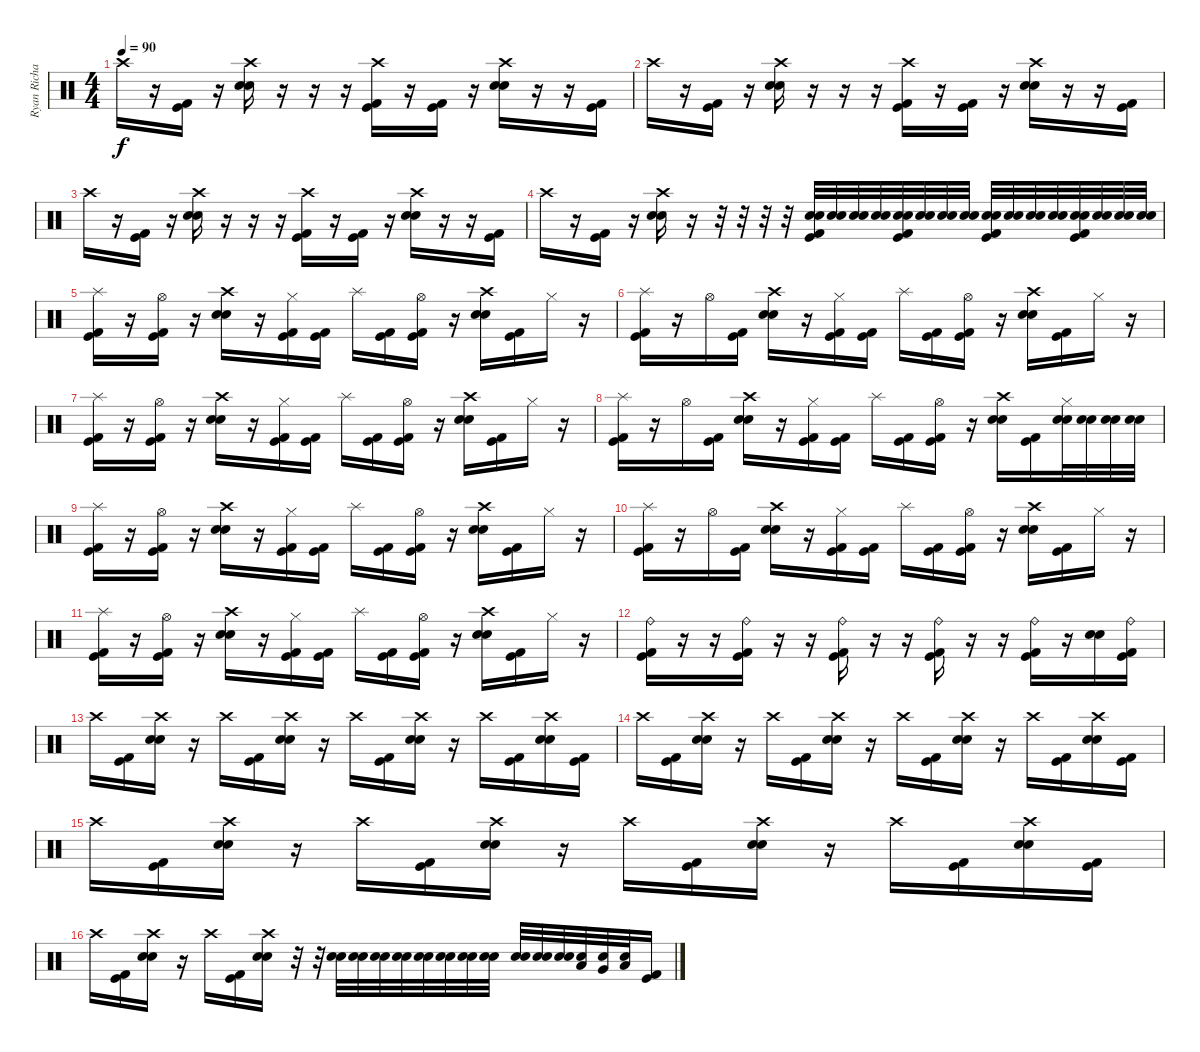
\track ("Ryan Richards" "Ryan Richa") {instrument percussion}
\staff {score}
\articulation defaults
\ts (4 4)
\tempo 90
\clef neutral
\ks c "Crash high (hit)".16{dy f}
r.16 ("Kick (hit)" "Kick (hit) 2").16 r.16 ("Snare (hit) 2" "Crash high (hit)" "Electric Snare (hit)").16 r.16 r.16 r.16 ("Kick (hit)" "Crash high (hit)" "Kick (hit) 2").16 r.16 ("Kick (hit)" "Kick (hit) 2").16 r.16 ("Snare (hit) 2" "Crash high (hit)" "Electric Snare (hit)").16 r.16 r.16 ("Kick (hit)" "Kick (hit) 2").16 |
"Crash high (hit)".16 r.16 ("Kick (hit)" "Kick (hit) 2").16 r.16 ("Snare (hit) 2" "Crash high (hit)" "Electric Snare (hit)").16 r.16 r.16 r.16 ("Kick (hit)" "Crash high (hit)" "Kick (hit) 2").16 r.16 ("Kick (hit)" "Kick (hit) 2").16 r.16 ("Snare (hit) 2" "Crash high (hit)" "Electric Snare (hit)").16 r.16 r.16 ("Kick (hit)" "Kick (hit) 2").16 |
"Crash high (hit)".16 r.16 ("Kick (hit)" "Kick (hit) 2").16 r.16 ("Snare (hit) 2" "Crash high (hit)" "Electric Snare (hit)").16 r.16 r.16 r.16 ("Kick (hit)" "Crash high (hit)" "Kick (hit) 2").16 r.16 ("Kick (hit)" "Kick (hit) 2").16 r.16 ("Snare (hit) 2" "Crash high (hit)" "Electric Snare (hit)").16 r.16 r.16 ("Kick (hit)" "Kick (hit) 2").16 |
"Crash high (hit)".16 r.16 ("Kick (hit)" "Kick (hit) 2").16 r.16 ("Snare (hit) 2" "Crash high (hit)" "Electric Snare (hit)").16 r.16 r.32 r.32 r.32 r.32 ("Kick (hit)" "Snare (hit) 2" "Electric Snare (hit)" "Kick (hit) 2").32 ("Snare (hit) 2" "Electric Snare (hit)").32 ("Snare (hit) 2" "Electric Snare (hit)").32 ("Snare (hit) 2" "Electric Snare (hit)").32 ("Kick (hit)" "Snare (hit) 2" "Electric Snare (hit)" "Kick (hit) 2").32 ("Snare (hit) 2" "Electric Snare (hit)").32 ("Snare (hit) 2" "Electric Snare (hit)").32 ("Snare (hit) 2" "Electric Snare (hit)").32 ("Kick (hit)" "Snare (hit) 2" "Electric Snare (hit)" "Kick (hit) 2").32 ("Snare (hit) 2" "Electric Snare (hit)").32 ("Snare (hit) 2" "Electric Snare (hit)").32 ("Snare (hit) 2" "Electric Snare (hit)").32 ("Kick (hit)" "Snare (hit) 2" "Electric Snare (hit)" "Kick (hit) 2").32 ("Snare (hit) 2" "Electric Snare (hit)").32 ("Snare (hit) 2" "Electric Snare (hit)").32 ("Snare (hit) 2" "Electric Snare (hit)").32 |
("Kick (hit)" "Splash (hit)" "Kick (hit) 2").16 r.16 ("Kick (hit)" "Hi-Hat (open)" "Kick (hit) 2").16 r.16 ("Snare (hit) 2" "Crash high (hit)" "Electric Snare (hit)").16 r.16 ("Kick (hit)" "Hi-Hat (closed)" "Kick (hit) 2").16 ("Kick (hit)" "Kick (hit) 2").16 "Splash (hit)".16 ("Kick (hit)" "Kick (hit) 2").16 ("Kick (hit)" "Hi-Hat (open)" "Kick (hit) 2").16 r.16 ("Snare (hit) 2" "Crash high (hit)" "Electric Snare (hit)").16 ("Kick (hit)" "Kick (hit) 2").16 "Hi-Hat (closed)".16 r.16 |
("Kick (hit)" "Splash (hit)" "Kick (hit) 2").16 r.16 "Hi-Hat (open)".16 ("Kick (hit)" "Kick (hit) 2").16 ("Snare (hit) 2" "Crash high (hit)" "Electric Snare (hit)").16 r.16 ("Kick (hit)" "Hi-Hat (closed)" "Kick (hit) 2").16 ("Kick (hit)" "Kick (hit) 2").16 "Splash (hit)".16 ("Kick (hit)" "Kick (hit) 2").16 ("Kick (hit)" "Hi-Hat (open)" "Kick (hit) 2").16 r.16 ("Snare (hit) 2" "Crash high (hit)" "Electric Snare (hit)").16 ("Kick (hit)" "Kick (hit) 2").16 "Hi-Hat (closed)".16 r.16 |
("Kick (hit)" "Splash (hit)" "Kick (hit) 2").16 r.16 ("Kick (hit)" "Hi-Hat (open)" "Kick (hit) 2").16 r.16 ("Snare (hit) 2" "Crash high (hit)" "Electric Snare (hit)").16 r.16 ("Kick (hit)" "Hi-Hat (closed)" "Kick (hit) 2").16 ("Kick (hit)" "Kick (hit) 2").16 "Splash (hit)".16 ("Kick (hit)" "Kick (hit) 2").16 ("Kick (hit)" "Hi-Hat (open)" "Kick (hit) 2").16 r.16 ("Snare (hit) 2" "Crash high (hit)" "Electric Snare (hit)").16 ("Kick (hit)" "Kick (hit) 2").16 "Hi-Hat (closed)".16 r.16 |
("Kick (hit)" "Splash (hit)" "Kick (hit) 2").16 r.16 "Hi-Hat (open)".16 ("Kick (hit)" "Kick (hit) 2").16 ("Snare (hit) 2" "Crash high (hit)" "Electric Snare (hit)").16 r.16 ("Kick (hit)" "Hi-Hat (closed)" "Kick (hit) 2").16 ("Kick (hit)" "Kick (hit) 2").16 "Splash (hit)".16 ("Kick (hit)" "Kick (hit) 2").16 ("Kick (hit)" "Hi-Hat (open)" "Kick (hit) 2").16 r.16 ("Snare (hit) 2" "Crash high (hit)" "Electric Snare (hit)").16 ("Kick (hit)" "Kick (hit) 2").16 ("Snare (hit) 2" "Hi-Hat (closed)" "Electric Snare (hit)").32 ("Snare (hit) 2" "Electric Snare (hit)").32 ("Snare (hit) 2" "Electric Snare (hit)").32 ("Snare (hit) 2" "Electric Snare (hit)").32 |
("Kick (hit)" "Splash (hit)" "Kick (hit) 2").16 r.16 ("Kick (hit)" "Hi-Hat (open)" "Kick (hit) 2").16 r.16 ("Snare (hit) 2" "Crash high (hit)" "Electric Snare (hit)").16 r.16 ("Kick (hit)" "Hi-Hat (closed)" "Kick (hit) 2").16 ("Kick (hit)" "Kick (hit) 2").16 "Splash (hit)".16 ("Kick (hit)" "Kick (hit) 2").16 ("Kick (hit)" "Hi-Hat (open)" "Kick (hit) 2").16 r.16 ("Snare (hit) 2" "Crash high (hit)" "Electric Snare (hit)").16 ("Kick (hit)" "Kick (hit) 2").16 "Hi-Hat (closed)".16 r.16 |
("Kick (hit)" "Splash (hit)" "Kick (hit) 2").16 r.16 "Hi-Hat (open)".16 ("Kick (hit)" "Kick (hit) 2").16 ("Snare (hit) 2" "Crash high (hit)" "Electric Snare (hit)").16 r.16 ("Kick (hit)" "Hi-Hat (closed)" "Kick (hit) 2").16 ("Kick (hit)" "Kick (hit) 2").16 "Splash (hit)".16 ("Kick (hit)" "Kick (hit) 2").16 ("Kick (hit)" "Hi-Hat (open)" "Kick (hit) 2").16 r.16 ("Snare (hit) 2" "Crash high (hit)" "Electric Snare (hit)").16 ("Kick (hit)" "Kick (hit) 2").16 "Hi-Hat (closed)".16 r.16 |
("Kick (hit)" "Splash (hit)" "Kick (hit) 2").16 r.16 ("Kick (hit)" "Hi-Hat (open)" "Kick (hit) 2").16 r.16 ("Snare (hit) 2" "Crash high (hit)" "Electric Snare (hit)").16 r.16 ("Kick (hit)" "Hi-Hat (closed)" "Kick (hit) 2").16 ("Kick (hit)" "Kick (hit) 2").16 "Splash (hit)".16 ("Kick (hit)" "Kick (hit) 2").16 ("Kick (hit)" "Hi-Hat (open)" "Kick (hit) 2").16 r.16 ("Snare (hit) 2" "Crash high (hit)" "Electric Snare (hit)").16 ("Kick (hit)" "Kick (hit) 2").16 "Hi-Hat (closed)".16 r.16 |
("Kick (hit)" "Ride (bell)" "Kick (hit) 2").16 r.16 r.16 ("Kick (hit)" "Ride (bell)" "Kick (hit) 2").16 r.16 r.16 ("Kick (hit)" "Ride (bell)" "Kick (hit) 2").16 r.16 r.16 ("Kick (hit)" "Ride (bell)" "Kick (hit) 2").16 r.16 r.16 ("Kick (hit)" "Ride (bell)" "Kick (hit) 2").16 r.16 ("Snare (hit) 2" "Electric Snare (hit)").16 ("Kick (hit)" "Ride (bell)" "Kick (hit) 2").16 |
"Crash high (hit)".16 ("Kick (hit)" "Kick (hit) 2").16 ("Snare (hit) 2" "Crash high (hit)" "Electric Snare (hit)").16 r.16 "Crash high (hit)".16 ("Kick (hit)" "Kick (hit) 2").16 ("Snare (hit) 2" "Crash high (hit)" "Electric Snare (hit)").16 r.16 "Crash high (hit)".16 ("Kick (hit)" "Kick (hit) 2").16 ("Snare (hit) 2" "Crash high (hit)" "Electric Snare (hit)").16 r.16 "Crash high (hit)".16 ("Kick (hit)" "Kick (hit) 2").16 ("Snare (hit) 2" "Crash high (hit)" "Electric Snare (hit)").16 ("Kick (hit)" "Kick (hit) 2").16 |
"Crash high (hit)".16 ("Kick (hit)" "Kick (hit) 2").16 ("Snare (hit) 2" "Crash high (hit)" "Electric Snare (hit)").16 r.16 "Crash high (hit)".16 ("Kick (hit)" "Kick (hit) 2").16 ("Snare (hit) 2" "Crash high (hit)" "Electric Snare (hit)").16 r.16 "Crash high (hit)".16 ("Kick (hit)" "Kick (hit) 2").16 ("Snare (hit) 2" "Crash high (hit)" "Electric Snare (hit)").16 r.16 "Crash high (hit)".16 ("Kick (hit)" "Kick (hit) 2").16 ("Snare (hit) 2" "Crash high (hit)" "Electric Snare (hit)").16 ("Kick (hit)" "Kick (hit) 2").16 |
"Crash high (hit)".16 ("Kick (hit)" "Kick (hit) 2").16 ("Snare (hit) 2" "Crash high (hit)" "Electric Snare (hit)").16 r.16 "Crash high (hit)".16 ("Kick (hit)" "Kick (hit) 2").16 ("Snare (hit) 2" "Crash high (hit)" "Electric Snare (hit)").16 r.16 "Crash high (hit)".16 ("Kick (hit)" "Kick (hit) 2").16 ("Snare (hit) 2" "Crash high (hit)" "Electric Snare (hit)").16 r.16 "Crash high (hit)".16 ("Kick (hit)" "Kick (hit) 2").16 ("Snare (hit) 2" "Crash high (hit)" "Electric Snare (hit)").16 ("Kick (hit)" "Kick (hit) 2").16 |
"Crash high (hit)".16 ("Kick (hit)" "Kick (hit) 2").16 ("Snare (hit) 2" "Crash high (hit)" "Electric Snare (hit)").16 r.16 "Crash high (hit)".16 ("Kick (hit)" "Kick (hit) 2").16 ("Snare (hit) 2" "Crash high (hit)" "Electric Snare (hit)").16 r.32 r.32 ("Snare (hit) 2" "Electric Snare (hit)").32 ("Snare (hit) 2" "Electric Snare (hit)").32 ("Snare (hit) 2" "Electric Snare (hit)").32 ("Snare (hit) 2" "Electric Snare (hit)").32 ("Snare (hit) 2" "Electric Snare (hit)").32 ("Snare (hit) 2" "Electric Snare (hit)").32 ("Snare (hit) 2" "Electric Snare (hit)").32 ("Snare (hit) 2" "Electric Snare (hit)").32 ("Snare (hit) 2" "Electric Snare (hit)").32 ("Snare (hit) 2" "Electric Snare (hit)").32 ("Snare (hit) 2" "Electric Snare (hit)").32 ("Low Floor Tom (hit)" "Electric Snare (hit)").32 ("Very Low Tom (hit)" "Electric Snare (hit)").32 ("Low Tom (hit)" "Electric Snare (hit)").32 ("Kick (hit)" "Kick (hit) 2").16
